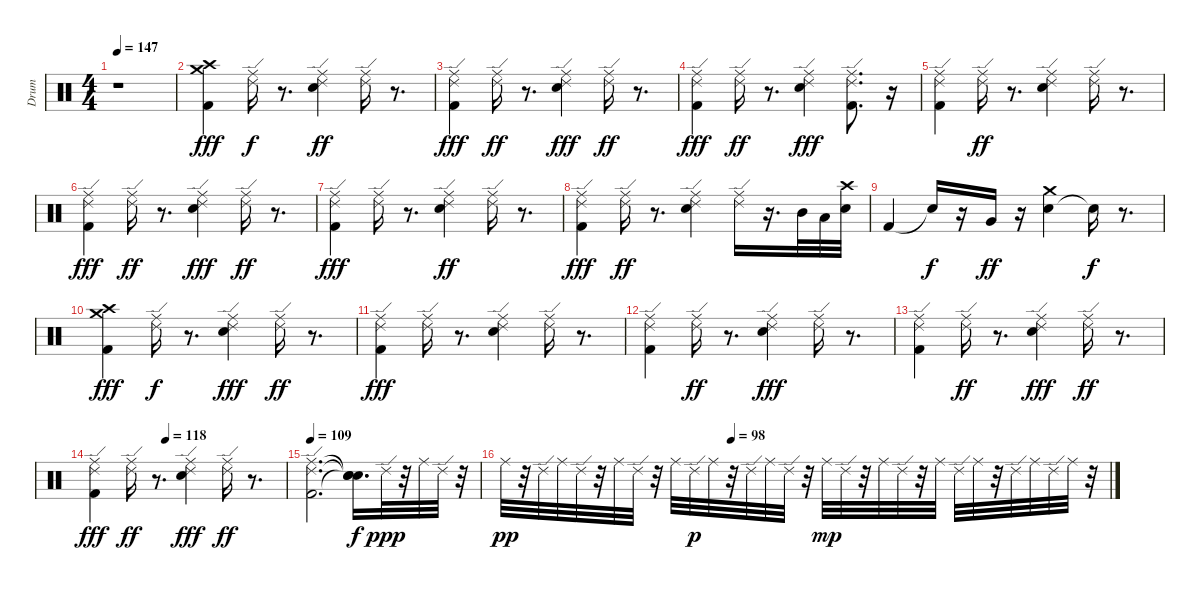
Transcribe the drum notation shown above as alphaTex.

\track ("Drum" "Drum") {instrument percussion}
\staff {score}
\articulation defaults
\ts (4 4)
\tempo 147
\clef neutral
\ks c
r.1{dy f} |
("Crash medium (hit)" "Kick (hit) 2" "Crash high (hit)").4{dy fff} ("Ride (edge) 2" "Ride (middle)").16{dy f} r.8{d} ("Snare (hit) 2" "Ride (middle)" "Ride (edge) 2").4{dy ff} ("Ride (middle)" "Ride (edge) 2").16 r.8{d} |
("Kick (hit) 2" "Ride (edge) 2" "Ride (middle)").4{dy fff} ("Ride (middle)" "Ride (edge) 2").16{dy ff} r.8{d} ("Snare (hit) 2" "Ride (edge) 2" "Ride (middle)").4{dy fff} ("Ride (middle)" "Ride (edge) 2").16{dy ff} r.8{d} |
("Kick (hit) 2" "Ride (edge) 2" "Ride (middle)").4{dy fff} ("Ride (middle)" "Ride (edge) 2").16{dy ff} r.8{d} ("Snare (hit) 2" "Ride (middle)" "Ride (edge) 2").4{dy fff} ("Ride (middle)" "Ride (edge) 2" "Kick (hit) 2").8{d} r.16 |
("Kick (hit) 2" "Ride (edge) 2" "Ride (middle)").4 ("Ride (edge) 2" "Ride (middle)").16{dy ff} r.8{d} ("Snare (hit) 2" "Ride (middle)" "Ride (edge) 2").4 ("Ride (middle)" "Ride (edge) 2").16 r.8{d} |
("Kick (hit) 2" "Ride (edge) 2" "Ride (middle)").4{dy fff} ("Ride (middle)" "Ride (edge) 2").16{dy ff} r.8{d} ("Snare (hit) 2" "Ride (edge) 2" "Ride (middle)").4{dy fff} ("Ride (middle)" "Ride (edge) 2").16{dy ff} r.8{d} |
("Ride (middle)" "Ride (edge) 2" "Kick (hit) 2").4{dy fff} ("Ride (edge) 2" "Ride (middle)").16 r.8{d} ("Snare (hit) 2" "Ride (middle)" "Ride (edge) 2").4{dy ff} ("Ride (edge) 2" "Ride (middle)").16 r.8{d} |
("Kick (hit) 2" "Ride (edge) 2" "Ride (middle)").4{dy fff} ("Ride (middle)" "Ride (edge) 2").16{dy ff} r.8{d} ("Snare (hit) 2" "Ride (edge) 2" "Ride (middle)").4 ("Ride (middle)" "Ride (edge) 2").16 r.16{d} "Mid Tom (hit)".32 "Low Tom (hit)".32 ("Snare (hit) 2" "Crash high (hit)").32 |
"Kick (hit) 2".4 "Snare (hit)"{t}.16{dy f} r.16 "Very Low Tom (hit)".16{dy ff} r.16 ("Snare (hit) 2" "Crash medium (hit)").4 "Snare (hit)"{t}.16{dy f} r.8{d} |
("Kick (hit) 2" "Crash medium (hit)" "Crash high (hit)").4{dy fff} ("Ride (edge) 2" "Ride (middle)").16{dy f} r.8{d} ("Snare (hit) 2" "Ride (edge) 2" "Ride (middle)").4{dy fff} ("Ride (middle)" "Ride (edge) 2").16{dy ff} r.8{d} |
("Ride (edge) 2" "Ride (middle)" "Kick (hit) 2").4{dy fff} ("Ride (edge) 2" "Ride (middle)").16 r.8{d} ("Snare (hit) 2" "Ride (edge) 2" "Ride (middle)").4 ("Ride (edge) 2" "Ride (middle)").16 r.8{d} |
("Kick (hit) 2" "Ride (edge) 2" "Ride (middle)").4 ("Ride (edge) 2" "Ride (middle)").16{dy ff} r.8{d} ("Snare (hit) 2" "Ride (edge) 2" "Ride (middle)").4{dy fff} ("Ride (edge) 2" "Ride (middle)").16 r.8{d} |
("Kick (hit) 2" "Ride (edge) 2" "Ride (middle)").4 ("Ride (middle)" "Ride (edge) 2").16{dy ff} r.8{d} ("Ride (middle)" "Ride (edge) 2" "Snare (hit) 2").4{dy fff} ("Ride (middle)" "Ride (edge) 2").16{dy ff} r.8{d} |
\tempo (118 0.375)
("Kick (hit) 2" "Ride (edge) 2" "Ride (middle)").4{dy fff} ("Ride (middle)" "Ride (edge) 2").16{dy ff} r.8{d} ("Ride (middle)" "Snare (hit) 2" "Ride (edge) 2").4{dy fff} ("Ride (edge) 2" "Ride (middle)").16{dy ff} r.8{d} |
\tempo 109
("Kick (hit) 2" "Ride (edge) 2" "Ride (middle)").2{d} ("Snare (hit)"{t} "Snare (hit)"{t} "Snare (hit)"{t}).16{d dy f} "Ride (edge) 2".32{dy ppp} r.32 "Ride (middle)".32 "Ride (edge) 2".32 r.32 |
\tempo (98 0.375)
"Ride (middle)".32{dy pp} r.32 "Ride (edge) 2".32 "Ride (middle)".32 "Ride (edge) 2".32 r.32 "Ride (middle)".32 "Ride (edge) 2".32 r.32 "Ride (middle)".32 "Ride (edge) 2".32{dy p} "Ride (middle)".32 r.32 "Ride (edge) 2".32 "Ride (middle)".32 "Ride (edge) 2".32 r.32 "Ride (middle)".32{dy mp} "Ride (edge) 2".32 r.32 "Ride (middle)".32 "Ride (edge) 2".32 r.32 "Ride (middle)".32 "Ride (edge) 2".32 "Ride (middle)".32 r.32 "Ride (edge) 2".32 "Ride (middle)".32 "Ride (edge) 2".32 "Ride (middle)".32 r.32
